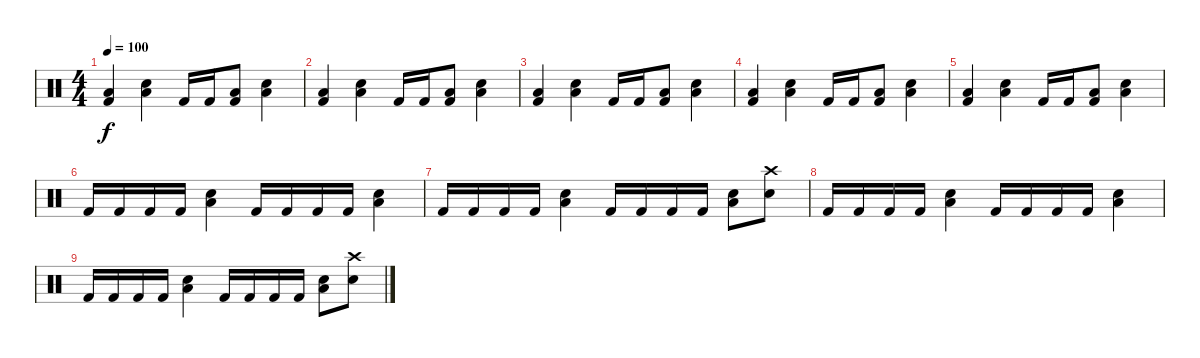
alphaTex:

\track "" {instrument percussion}
\staff {score}
\articulation defaults
\ts (4 4)
\tempo 100
\clef neutral
\ks c
("Low Tom (hit)" "Kick (hit) 2").4{dy f} ("Low Tom (hit)" "Electric Snare (hit)").4 "Kick (hit) 2".16 "Kick (hit) 2".16 ("Low Tom (hit)" "Kick (hit) 2").8 ("Low Tom (hit)" "Electric Snare (hit)").4 |
("Low Tom (hit)" "Kick (hit) 2").4 ("Low Tom (hit)" "Electric Snare (hit)").4 "Kick (hit) 2".16 "Kick (hit) 2".16 ("Low Tom (hit)" "Kick (hit) 2").8 ("Low Tom (hit)" "Electric Snare (hit)").4 |
("Low Tom (hit)" "Kick (hit) 2").4 ("Low Tom (hit)" "Electric Snare (hit)").4 "Kick (hit) 2".16 "Kick (hit) 2".16 ("Low Tom (hit)" "Kick (hit) 2").8 ("Low Tom (hit)" "Electric Snare (hit)").4 |
("Low Tom (hit)" "Kick (hit) 2").4 ("Low Tom (hit)" "Electric Snare (hit)").4 "Kick (hit) 2".16 "Kick (hit) 2".16 ("Low Tom (hit)" "Kick (hit) 2").8 ("Low Tom (hit)" "Electric Snare (hit)").4 |
("Low Tom (hit)" "Kick (hit) 2").4 ("Low Tom (hit)" "Electric Snare (hit)").4 "Kick (hit) 2".16 "Kick (hit) 2".16 ("Low Tom (hit)" "Kick (hit) 2").8 ("Low Tom (hit)" "Electric Snare (hit)").4 |
"Kick (hit) 2".16 "Kick (hit) 2".16 "Kick (hit) 2".16 "Kick (hit) 2".16 ("Low Tom (hit)" "Electric Snare (hit)").4 "Kick (hit) 2".16 "Kick (hit) 2".16 "Kick (hit) 2".16 "Kick (hit) 2".16 ("Low Tom (hit)" "Electric Snare (hit)").4 |
"Kick (hit) 2".16 "Kick (hit) 2".16 "Kick (hit) 2".16 "Kick (hit) 2".16 ("Low Tom (hit)" "Electric Snare (hit)").4 "Kick (hit) 2".16 "Kick (hit) 2".16 "Kick (hit) 2".16 "Kick (hit) 2".16 ("Low Tom (hit)" "Electric Snare (hit)").8 ("Crash high (hit)" "Electric Snare (hit)").8 |
"Kick (hit) 2".16 "Kick (hit) 2".16 "Kick (hit) 2".16 "Kick (hit) 2".16 ("Low Tom (hit)" "Electric Snare (hit)").4 "Kick (hit) 2".16 "Kick (hit) 2".16 "Kick (hit) 2".16 "Kick (hit) 2".16 ("Low Tom (hit)" "Electric Snare (hit)").4 |
"Kick (hit) 2".16 "Kick (hit) 2".16 "Kick (hit) 2".16 "Kick (hit) 2".16 ("Low Tom (hit)" "Electric Snare (hit)").4 "Kick (hit) 2".16 "Kick (hit) 2".16 "Kick (hit) 2".16 "Kick (hit) 2".16 ("Low Tom (hit)" "Electric Snare (hit)").8 ("Crash high (hit)" "Electric Snare (hit)").8
